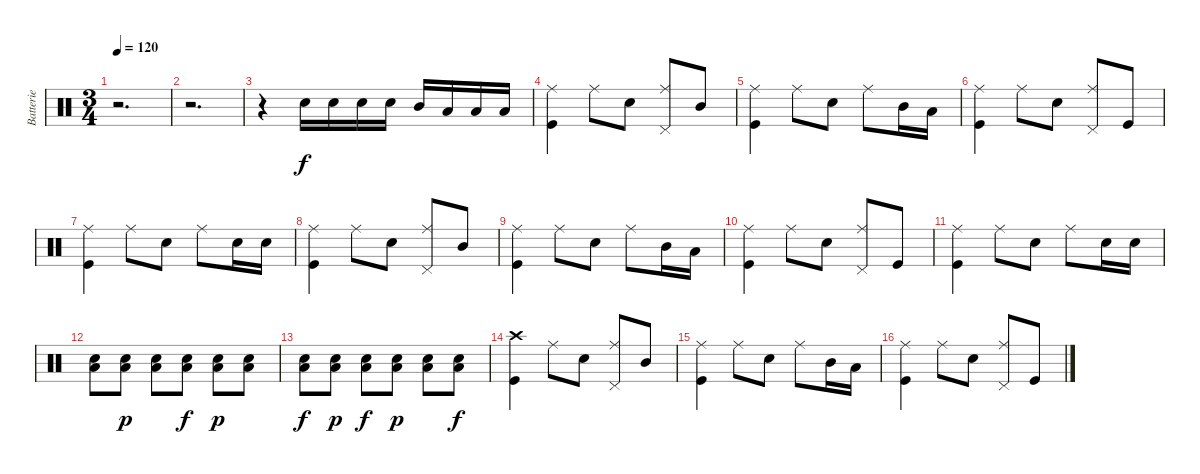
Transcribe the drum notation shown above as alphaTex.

\track ("Batterie" "Batterie") {instrument percussion}
\staff {score}
\articulation defaults
\ts (3 4)
\tempo 120
\clef neutral
\ks c
r.2{d dy f} |
r.2{d} |
r.4{volume 16} "Electric Snare (hit)".16 "Electric Snare (hit)".16 "Electric Snare (hit)".16 "Electric Snare (hit)".16 "Mid Tom (hit)".16 "Low Tom (hit)".16 "Low Floor Tom (hit)".16 "Low Floor Tom (hit)".16 |
("Ride (middle)" "Kick (hit)").4 "Ride (middle)".8 "Electric Snare (hit)".8 ("Ride (middle)" "Pedal Hi-Hat (hit)").8 "Mid Tom (hit)".8 |
("Ride (middle)" "Kick (hit)").4 "Ride (middle)".8 "Electric Snare (hit)".8 "Ride (middle)".8 "Mid Tom (hit)".16 "Low Floor Tom (hit)".16 |
("Ride (middle)" "Kick (hit)").4 "Ride (middle)".8 "Electric Snare (hit)".8 ("Ride (middle)" "Pedal Hi-Hat (hit)").8 "Kick (hit)".8 |
("Ride (middle)" "Kick (hit)").4 "Ride (middle)".8 "Electric Snare (hit)".8 "Ride (middle)".8 "Electric Snare (hit)".16 "Electric Snare (hit)".16 |
("Ride (middle)" "Kick (hit)").4 "Ride (middle)".8 "Electric Snare (hit)".8 ("Ride (middle)" "Pedal Hi-Hat (hit)").8 "Mid Tom (hit)".8 |
("Ride (middle)" "Kick (hit)").4 "Ride (middle)".8 "Electric Snare (hit)".8 "Ride (middle)".8 "Mid Tom (hit)".16 "Low Floor Tom (hit)".16 |
("Ride (middle)" "Kick (hit)").4 "Ride (middle)".8 "Electric Snare (hit)".8 ("Ride (middle)" "Pedal Hi-Hat (hit)").8 "Kick (hit)".8 |
("Ride (middle)" "Kick (hit)").4 "Ride (middle)".8 "Electric Snare (hit)".8 "Ride (middle)".8 "Electric Snare (hit)".16 "Electric Snare (hit)".16 |
("Electric Snare (hit)" "Low Floor Tom (hit)").8 ("Electric Snare (hit)" "Low Floor Tom (hit)").8{dy p} ("Electric Snare (hit)" "Low Floor Tom (hit)").8 ("Electric Snare (hit)" "Low Floor Tom (hit)").8{dy f} ("Electric Snare (hit)" "Low Floor Tom (hit)").8{dy p} ("Electric Snare (hit)" "Low Floor Tom (hit)").8 |
("Electric Snare (hit)" "Low Floor Tom (hit)").8{dy f} ("Electric Snare (hit)" "Low Floor Tom (hit)").8{dy p} ("Electric Snare (hit)" "Low Floor Tom (hit)").8{dy f} ("Electric Snare (hit)" "Low Floor Tom (hit)").8{dy p} ("Electric Snare (hit)" "Low Floor Tom (hit)").8 ("Electric Snare (hit)" "Low Floor Tom (hit)").8{dy f} |
("Crash high (hit)" "Kick (hit)").4 "Ride (middle)".8 "Electric Snare (hit)".8 ("Ride (middle)" "Pedal Hi-Hat (hit)").8 "Mid Tom (hit)".8 |
("Ride (middle)" "Kick (hit)").4 "Ride (middle)".8 "Electric Snare (hit)".8 "Ride (middle)".8 "Mid Tom (hit)".16 "Low Floor Tom (hit)".16 |
("Ride (middle)" "Kick (hit)").4 "Ride (middle)".8 "Electric Snare (hit)".8 ("Ride (middle)" "Pedal Hi-Hat (hit)").8 "Kick (hit)".8
